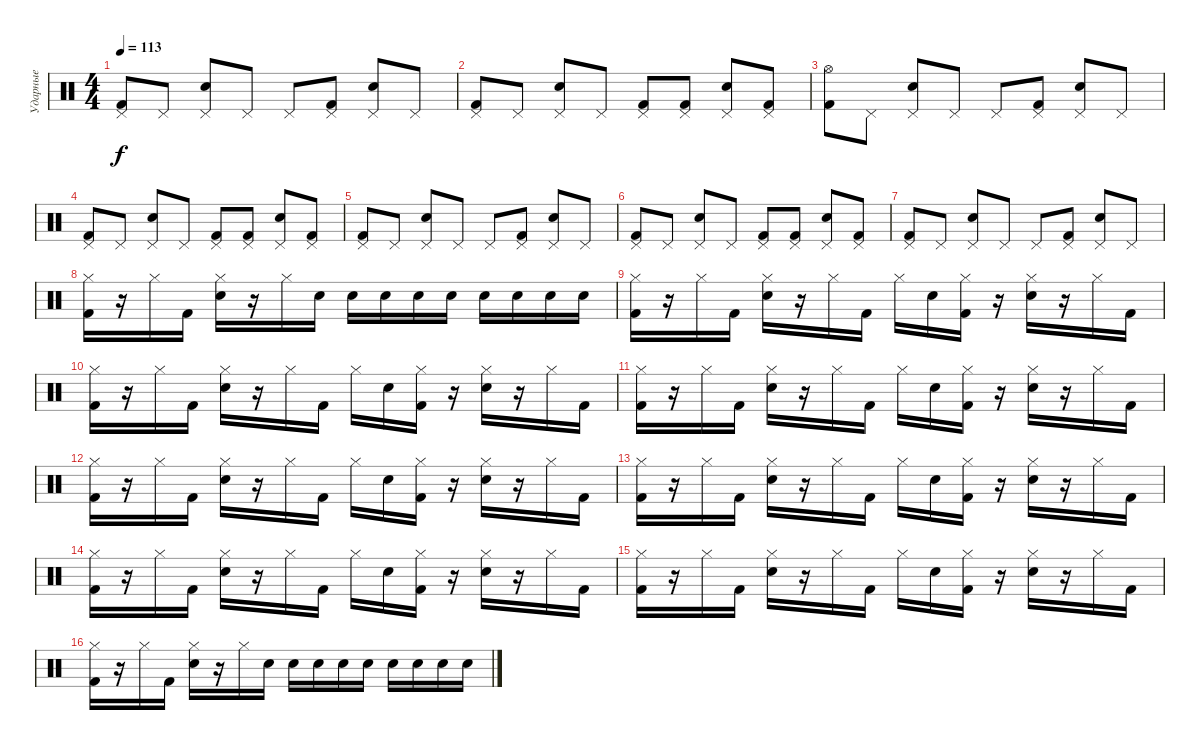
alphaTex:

\track ("Ударные" "Ударные") {instrument percussion}
\staff {score}
\articulation defaults
\ts (4 4)
\tempo 113
\clef neutral
\ks c
("Kick (hit) 2" "Pedal Hi-Hat (hit)").8{dy f} "Pedal Hi-Hat (hit)".8 ("Electric Snare (hit)" "Pedal Hi-Hat (hit)").8 "Pedal Hi-Hat (hit)".8 "Pedal Hi-Hat (hit)".8 ("Kick (hit) 2" "Pedal Hi-Hat (hit)").8 ("Electric Snare (hit)" "Pedal Hi-Hat (hit)").8 "Pedal Hi-Hat (hit)".8 |
("Kick (hit) 2" "Pedal Hi-Hat (hit)").8 "Pedal Hi-Hat (hit)".8 ("Electric Snare (hit)" "Pedal Hi-Hat (hit)").8 "Pedal Hi-Hat (hit)".8 ("Kick (hit) 2" "Pedal Hi-Hat (hit)").8 ("Kick (hit) 2" "Pedal Hi-Hat (hit)").8 ("Electric Snare (hit)" "Pedal Hi-Hat (hit)").8 ("Kick (hit) 2" "Pedal Hi-Hat (hit)").8 |
("Kick (hit) 2" "Hi-Hat (open)").8 "Pedal Hi-Hat (hit)".8 ("Electric Snare (hit)" "Pedal Hi-Hat (hit)").8 "Pedal Hi-Hat (hit)".8 "Pedal Hi-Hat (hit)".8 ("Kick (hit) 2" "Pedal Hi-Hat (hit)").8 ("Electric Snare (hit)" "Pedal Hi-Hat (hit)").8 "Pedal Hi-Hat (hit)".8 |
("Kick (hit) 2" "Pedal Hi-Hat (hit)").8 "Pedal Hi-Hat (hit)".8 ("Electric Snare (hit)" "Pedal Hi-Hat (hit)").8 "Pedal Hi-Hat (hit)".8 ("Kick (hit) 2" "Pedal Hi-Hat (hit)").8 ("Kick (hit) 2" "Pedal Hi-Hat (hit)").8 ("Electric Snare (hit)" "Pedal Hi-Hat (hit)").8 ("Kick (hit) 2" "Pedal Hi-Hat (hit)").8 |
("Kick (hit) 2" "Pedal Hi-Hat (hit)").8 "Pedal Hi-Hat (hit)".8 ("Electric Snare (hit)" "Pedal Hi-Hat (hit)").8 "Pedal Hi-Hat (hit)".8 "Pedal Hi-Hat (hit)".8 ("Kick (hit) 2" "Pedal Hi-Hat (hit)").8 ("Electric Snare (hit)" "Pedal Hi-Hat (hit)").8 "Pedal Hi-Hat (hit)".8 |
("Kick (hit) 2" "Pedal Hi-Hat (hit)").8 "Pedal Hi-Hat (hit)".8 ("Electric Snare (hit)" "Pedal Hi-Hat (hit)").8 "Pedal Hi-Hat (hit)".8 ("Kick (hit) 2" "Pedal Hi-Hat (hit)").8 ("Kick (hit) 2" "Pedal Hi-Hat (hit)").8 ("Electric Snare (hit)" "Pedal Hi-Hat (hit)").8 ("Kick (hit) 2" "Pedal Hi-Hat (hit)").8 |
("Kick (hit) 2" "Pedal Hi-Hat (hit)").8 "Pedal Hi-Hat (hit)".8 ("Electric Snare (hit)" "Pedal Hi-Hat (hit)").8 "Pedal Hi-Hat (hit)".8 "Pedal Hi-Hat (hit)".8 ("Kick (hit) 2" "Pedal Hi-Hat (hit)").8 ("Electric Snare (hit)" "Pedal Hi-Hat (hit)").8 "Pedal Hi-Hat (hit)".8 |
("Kick (hit) 2" "Hi-Hat (closed)").16 r.16 "Hi-Hat (closed)".16 "Kick (hit) 2".16 ("Electric Snare (hit)" "Hi-Hat (closed)").16 r.16 "Hi-Hat (closed)".16 "Electric Snare (hit)".16 "Electric Snare (hit)".16 "Electric Snare (hit)".16 "Electric Snare (hit)".16 "Electric Snare (hit)".16 "Electric Snare (hit)".16 "Electric Snare (hit)".16 "Electric Snare (hit)".16 "Electric Snare (hit)".16 |
("Kick (hit) 2" "Hi-Hat (closed)").16 r.16 "Hi-Hat (closed)".16 "Kick (hit) 2".16 ("Electric Snare (hit)" "Hi-Hat (closed)").16 r.16 "Hi-Hat (closed)".16 "Kick (hit) 2".16 "Hi-Hat (closed)".16 "Electric Snare (hit)".16 ("Kick (hit) 2" "Hi-Hat (closed)").16 r.16 ("Electric Snare (hit)" "Hi-Hat (closed)").16 r.16 "Hi-Hat (closed)".16 "Kick (hit) 2".16 |
("Kick (hit) 2" "Hi-Hat (closed)").16 r.16 "Hi-Hat (closed)".16 "Kick (hit) 2".16 ("Electric Snare (hit)" "Hi-Hat (closed)").16 r.16 "Hi-Hat (closed)".16 "Kick (hit) 2".16 "Hi-Hat (closed)".16 "Electric Snare (hit)".16 ("Kick (hit) 2" "Hi-Hat (closed)").16 r.16 ("Electric Snare (hit)" "Hi-Hat (closed)").16 r.16 "Hi-Hat (closed)".16 "Kick (hit) 2".16 |
("Kick (hit) 2" "Hi-Hat (closed)").16 r.16 "Hi-Hat (closed)".16 "Kick (hit) 2".16 ("Electric Snare (hit)" "Hi-Hat (closed)").16 r.16 "Hi-Hat (closed)".16 "Kick (hit) 2".16 "Hi-Hat (closed)".16 "Electric Snare (hit)".16 ("Kick (hit) 2" "Hi-Hat (closed)").16 r.16 ("Electric Snare (hit)" "Hi-Hat (closed)").16 r.16 "Hi-Hat (closed)".16 "Kick (hit) 2".16 |
("Kick (hit) 2" "Hi-Hat (closed)").16 r.16 "Hi-Hat (closed)".16 "Kick (hit) 2".16 ("Electric Snare (hit)" "Hi-Hat (closed)").16 r.16 "Hi-Hat (closed)".16 "Kick (hit) 2".16 "Hi-Hat (closed)".16 "Electric Snare (hit)".16 ("Kick (hit) 2" "Hi-Hat (closed)").16 r.16 ("Electric Snare (hit)" "Hi-Hat (closed)").16 r.16 "Hi-Hat (closed)".16 "Kick (hit) 2".16 |
("Kick (hit) 2" "Hi-Hat (closed)").16 r.16 "Hi-Hat (closed)".16 "Kick (hit) 2".16 ("Electric Snare (hit)" "Hi-Hat (closed)").16 r.16 "Hi-Hat (closed)".16 "Kick (hit) 2".16 "Hi-Hat (closed)".16 "Electric Snare (hit)".16 ("Kick (hit) 2" "Hi-Hat (closed)").16 r.16 ("Electric Snare (hit)" "Hi-Hat (closed)").16 r.16 "Hi-Hat (closed)".16 "Kick (hit) 2".16 |
("Kick (hit) 2" "Hi-Hat (closed)").16 r.16 "Hi-Hat (closed)".16 "Kick (hit) 2".16 ("Electric Snare (hit)" "Hi-Hat (closed)").16 r.16 "Hi-Hat (closed)".16 "Kick (hit) 2".16 "Hi-Hat (closed)".16 "Electric Snare (hit)".16 ("Kick (hit) 2" "Hi-Hat (closed)").16 r.16 ("Electric Snare (hit)" "Hi-Hat (closed)").16 r.16 "Hi-Hat (closed)".16 "Kick (hit) 2".16 |
("Kick (hit) 2" "Hi-Hat (closed)").16 r.16 "Hi-Hat (closed)".16 "Kick (hit) 2".16 ("Electric Snare (hit)" "Hi-Hat (closed)").16 r.16 "Hi-Hat (closed)".16 "Kick (hit) 2".16 "Hi-Hat (closed)".16 "Electric Snare (hit)".16 ("Kick (hit) 2" "Hi-Hat (closed)").16 r.16 ("Electric Snare (hit)" "Hi-Hat (closed)").16 r.16 "Hi-Hat (closed)".16 "Kick (hit) 2".16 |
("Kick (hit) 2" "Hi-Hat (closed)").16 r.16 "Hi-Hat (closed)".16 "Kick (hit) 2".16 ("Electric Snare (hit)" "Hi-Hat (closed)").16 r.16 "Hi-Hat (closed)".16 "Electric Snare (hit)".16 "Electric Snare (hit)".16 "Electric Snare (hit)".16 "Electric Snare (hit)".16 "Electric Snare (hit)".16 "Electric Snare (hit)".16 "Electric Snare (hit)".16 "Electric Snare (hit)".16 "Electric Snare (hit)".16
